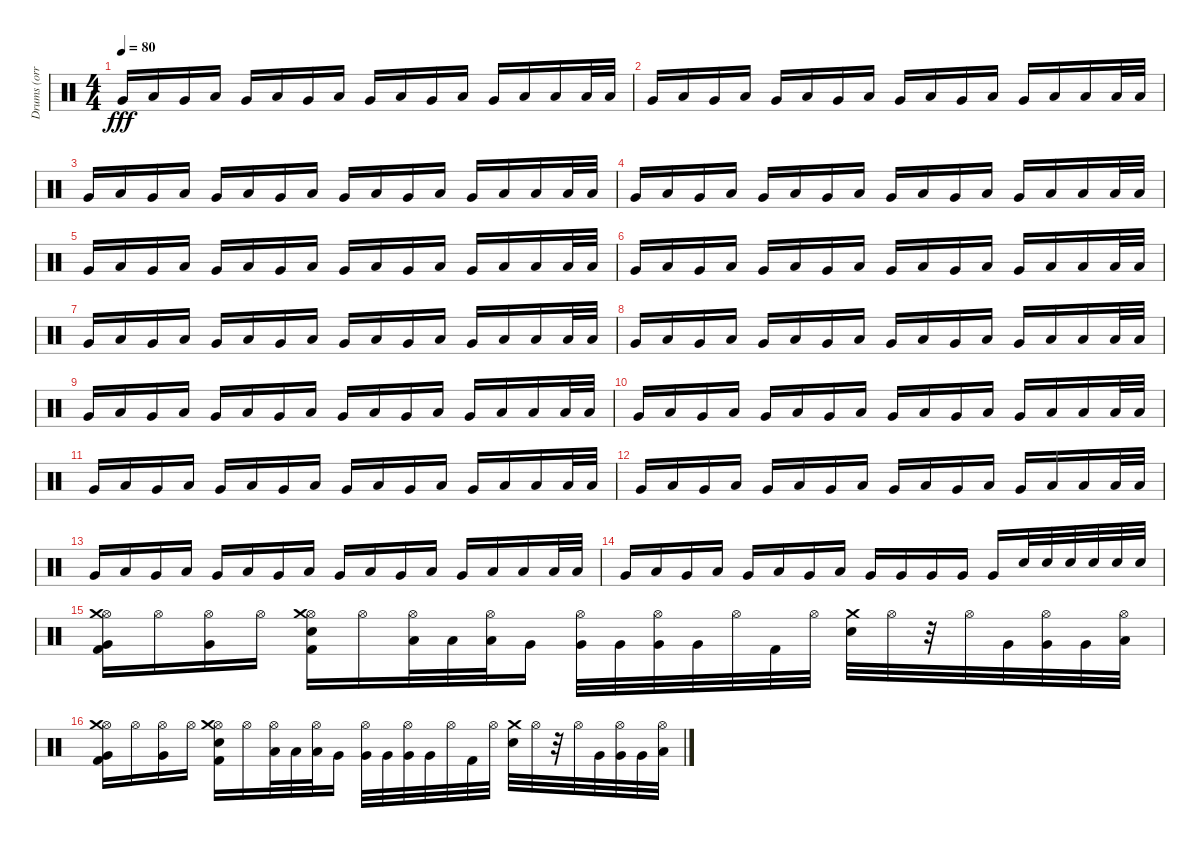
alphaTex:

\track ("Drums (orri páll dırason)" "Drums (orr") {instrument percussion}
\staff {score}
\articulation defaults
\ts (4 4)
\tempo 80
\clef neutral
\ks c "Very Low Tom (hit)".16{dy fff} "Low Floor Tom (hit)".16 "Very Low Tom (hit)".16 "Low Floor Tom (hit)".16 "Very Low Tom (hit)".16 "Low Floor Tom (hit)".16 "Very Low Tom (hit)".16 "Low Floor Tom (hit)".16 "Very Low Tom (hit)".16 "Low Floor Tom (hit)".16 "Very Low Tom (hit)".16 "Low Floor Tom (hit)".16 "Very Low Tom (hit)".16 "Low Floor Tom (hit)".16 "Low Tom (hit)".16 "Low Tom (hit)".32 "Low Tom (hit)".32
|
"Very Low Tom (hit)".16 "Low Floor Tom (hit)".16 "Very Low Tom (hit)".16 "Low Floor Tom (hit)".16 "Very Low Tom (hit)".16{volume 16} "Low Floor Tom (hit)".16 "Very Low Tom (hit)".16 "Low Floor Tom (hit)".16 "Very Low Tom (hit)".16 "Low Floor Tom (hit)".16 "Very Low Tom (hit)".16 "Low Floor Tom (hit)".16 "Very Low Tom (hit)".16 "Low Floor Tom (hit)".16 "Low Tom (hit)".16 "Low Tom (hit)".32 "Low Tom (hit)".32 |
"Very Low Tom (hit)".16 "Low Floor Tom (hit)".16 "Very Low Tom (hit)".16 "Low Floor Tom (hit)".16 "Very Low Tom (hit)".16 "Low Floor Tom (hit)".16 "Very Low Tom (hit)".16 "Low Floor Tom (hit)".16 "Very Low Tom (hit)".16 "Low Floor Tom (hit)".16 "Very Low Tom (hit)".16 "Low Floor Tom (hit)".16 "Very Low Tom (hit)".16 "Low Floor Tom (hit)".16 "Low Tom (hit)".16 "Low Tom (hit)".32 "Low Tom (hit)".32 |
"Very Low Tom (hit)".16 "Low Floor Tom (hit)".16 "Very Low Tom (hit)".16 "Low Floor Tom (hit)".16 "Very Low Tom (hit)".16 "Low Floor Tom (hit)".16 "Very Low Tom (hit)".16 "Low Floor Tom (hit)".16 "Very Low Tom (hit)".16 "Low Floor Tom (hit)".16 "Very Low Tom (hit)".16 "Low Floor Tom (hit)".16 "Very Low Tom (hit)".16 "Low Floor Tom (hit)".16 "Low Tom (hit)".16 "Low Tom (hit)".32 "Low Tom (hit)".32 |
"Very Low Tom (hit)".16 "Low Floor Tom (hit)".16 "Very Low Tom (hit)".16 "Low Floor Tom (hit)".16 "Very Low Tom (hit)".16 "Low Floor Tom (hit)".16 "Very Low Tom (hit)".16 "Low Floor Tom (hit)".16 "Very Low Tom (hit)".16 "Low Floor Tom (hit)".16 "Very Low Tom (hit)".16 "Low Floor Tom (hit)".16 "Very Low Tom (hit)".16 "Low Floor Tom (hit)".16 "Low Tom (hit)".16 "Low Tom (hit)".32 "Low Tom (hit)".32 |
"Very Low Tom (hit)".16 "Low Floor Tom (hit)".16 "Very Low Tom (hit)".16 "Low Floor Tom (hit)".16 "Very Low Tom (hit)".16 "Low Floor Tom (hit)".16 "Very Low Tom (hit)".16 "Low Floor Tom (hit)".16 "Very Low Tom (hit)".16 "Low Floor Tom (hit)".16 "Very Low Tom (hit)".16 "Low Floor Tom (hit)".16 "Very Low Tom (hit)".16 "Low Floor Tom (hit)".16 "Low Tom (hit)".16 "Low Tom (hit)".32 "Low Tom (hit)".32 |
"Very Low Tom (hit)".16 "Low Floor Tom (hit)".16 "Very Low Tom (hit)".16 "Low Floor Tom (hit)".16 "Very Low Tom (hit)".16 "Low Floor Tom (hit)".16 "Very Low Tom (hit)".16 "Low Floor Tom (hit)".16 "Very Low Tom (hit)".16 "Low Floor Tom (hit)".16 "Very Low Tom (hit)".16 "Low Floor Tom (hit)".16 "Very Low Tom (hit)".16 "Low Floor Tom (hit)".16 "Low Tom (hit)".16 "Low Tom (hit)".32 "Low Tom (hit)".32 |
"Very Low Tom (hit)".16 "Low Floor Tom (hit)".16 "Very Low Tom (hit)".16 "Low Floor Tom (hit)".16 "Very Low Tom (hit)".16 "Low Floor Tom (hit)".16 "Very Low Tom (hit)".16 "Low Floor Tom (hit)".16 "Very Low Tom (hit)".16 "Low Floor Tom (hit)".16 "Very Low Tom (hit)".16 "Low Floor Tom (hit)".16 "Very Low Tom (hit)".16 "Low Floor Tom (hit)".16 "Low Tom (hit)".16 "Low Tom (hit)".32 "Low Tom (hit)".32 |
"Very Low Tom (hit)".16 "Low Floor Tom (hit)".16 "Very Low Tom (hit)".16 "Low Floor Tom (hit)".16 "Very Low Tom (hit)".16 "Low Floor Tom (hit)".16 "Very Low Tom (hit)".16 "Low Floor Tom (hit)".16 "Very Low Tom (hit)".16 "Low Floor Tom (hit)".16 "Very Low Tom (hit)".16 "Low Floor Tom (hit)".16 "Very Low Tom (hit)".16 "Low Floor Tom (hit)".16 "Low Tom (hit)".16 "Low Tom (hit)".32 "Low Tom (hit)".32 |
"Very Low Tom (hit)".16 "Low Floor Tom (hit)".16 "Very Low Tom (hit)".16 "Low Floor Tom (hit)".16 "Very Low Tom (hit)".16 "Low Floor Tom (hit)".16 "Very Low Tom (hit)".16 "Low Floor Tom (hit)".16 "Very Low Tom (hit)".16 "Low Floor Tom (hit)".16 "Very Low Tom (hit)".16 "Low Floor Tom (hit)".16 "Very Low Tom (hit)".16 "Low Floor Tom (hit)".16 "Low Tom (hit)".16 "Low Tom (hit)".32 "Low Tom (hit)".32 |
"Very Low Tom (hit)".16 "Low Floor Tom (hit)".16 "Very Low Tom (hit)".16 "Low Floor Tom (hit)".16 "Very Low Tom (hit)".16 "Low Floor Tom (hit)".16 "Very Low Tom (hit)".16 "Low Floor Tom (hit)".16 "Very Low Tom (hit)".16 "Low Floor Tom (hit)".16 "Very Low Tom (hit)".16 "Low Floor Tom (hit)".16 "Very Low Tom (hit)".16 "Low Floor Tom (hit)".16 "Low Tom (hit)".16 "Low Tom (hit)".32 "Low Tom (hit)".32{volume 16} |
"Very Low Tom (hit)".16 "Low Floor Tom (hit)".16 "Very Low Tom (hit)".16 "Low Floor Tom (hit)".16 "Very Low Tom (hit)".16 "Low Floor Tom (hit)".16 "Very Low Tom (hit)".16 "Low Floor Tom (hit)".16 "Very Low Tom (hit)".16 "Low Floor Tom (hit)".16 "Very Low Tom (hit)".16 "Low Floor Tom (hit)".16 "Very Low Tom (hit)".16 "Low Floor Tom (hit)".16 "Low Tom (hit)".16 "Low Tom (hit)".32 "Low Tom (hit)".32 |
"Very Low Tom (hit)".16 "Low Floor Tom (hit)".16 "Very Low Tom (hit)".16 "Low Floor Tom (hit)".16 "Very Low Tom (hit)".16 "Low Floor Tom (hit)".16 "Very Low Tom (hit)".16 "Low Floor Tom (hit)".16 "Very Low Tom (hit)".16 "Low Floor Tom (hit)".16 "Very Low Tom (hit)".16 "Low Floor Tom (hit)".16 "Very Low Tom (hit)".16 "Low Floor Tom (hit)".16 "Low Tom (hit)".16 "Low Tom (hit)".32 "Low Tom (hit)".32 |
"Very Low Tom (hit)".16 "Low Floor Tom (hit)".16 "Very Low Tom (hit)".16 "Low Floor Tom (hit)".16 "Very Low Tom (hit)".16 "Low Floor Tom (hit)".16 "Very Low Tom (hit)".16 "Low Floor Tom (hit)".16 "Very Low Tom (hit)".16 "Very Low Tom (hit)".16 "Very Low Tom (hit)".16 "Very Low Tom (hit)".16 "Very Low Tom (hit)".16 "Electric Snare (hit)".32 "Electric Snare (hit)".32 "Electric Snare (hit)".32 "Electric Snare (hit)".32 "Electric Snare (hit)".32 "Electric Snare (hit)".32 |
("Kick (hit) 2" "Hi-Hat (open)" "Crash medium (hit)" "Very Low Tom (hit)").16 "Hi-Hat (open)".16 ("Hi-Hat (open)" "Very Low Tom (hit)").16 "Hi-Hat (open)".16 ("Kick (hit) 2" "Hi-Hat (open)" "Crash medium (hit)" "Electric Snare (hit)").16 "Hi-Hat (open)".16 ("Hi-Hat (open)" "Low Floor Tom (hit)").32 "Low Floor Tom (hit)".32 ("Hi-Hat (open)" "Low Floor Tom (hit)").32 "Very Low Tom (hit)".16 ("Hi-Hat (open)" "Very Low Tom (hit)").32 "Very Low Tom (hit)".32 ("Hi-Hat (open)" "Very Low Tom (hit)").32 "Very Low Tom (hit)".32 "Hi-Hat (open)".32 "Kick (hit) 2".32 "Hi-Hat (open)".32 ("Crash medium (hit)" "Electric Snare (hit)").32 "Hi-Hat (open)".32 r.32 "Hi-Hat (open)".32 "Very Low Tom (hit)".32 ("Hi-Hat (open)" "Very Low Tom (hit)").32 "Very Low Tom (hit)".32 ("Hi-Hat (open)" "Low Floor Tom (hit)").32 |
("Kick (hit) 2" "Hi-Hat (open)" "Crash medium (hit)" "Very Low Tom (hit)").16 "Hi-Hat (open)".16 ("Hi-Hat (open)" "Very Low Tom (hit)").16 "Hi-Hat (open)".16 ("Kick (hit) 2" "Hi-Hat (open)" "Crash medium (hit)" "Electric Snare (hit)").16 "Hi-Hat (open)".16 ("Hi-Hat (open)" "Low Floor Tom (hit)").32 "Low Floor Tom (hit)".32 ("Hi-Hat (open)" "Low Floor Tom (hit)").32 "Very Low Tom (hit)".16 ("Hi-Hat (open)" "Very Low Tom (hit)").32 "Very Low Tom (hit)".32 ("Hi-Hat (open)" "Very Low Tom (hit)").32 "Very Low Tom (hit)".32 "Hi-Hat (open)".32 "Kick (hit) 2".32 "Hi-Hat (open)".32 ("Crash medium (hit)" "Electric Snare (hit)").32 "Hi-Hat (open)".32 r.32 "Hi-Hat (open)".32 "Very Low Tom (hit)".32 ("Hi-Hat (open)" "Very Low Tom (hit)").32 "Very Low Tom (hit)".32 ("Hi-Hat (open)" "Low Floor Tom (hit)").32
